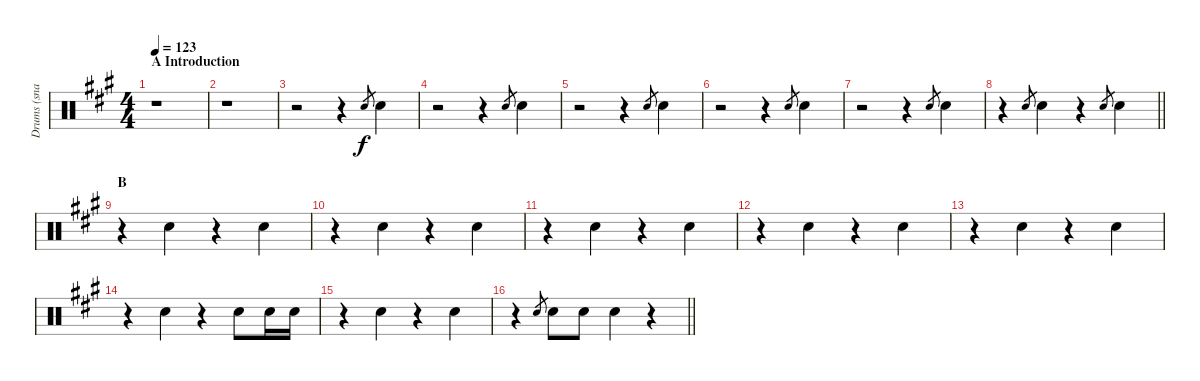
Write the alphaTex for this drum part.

\track ("Drums (snare)" "Drums (sna") {instrument percussion}
\staff {score}
\articulation defaults
\ts (4 4)
\section ("" "A Introduction")
\tempo 123
\clef neutral
\ks a
r.1{dy f} |
r.1 |
r.2 r.4 "Snare (hit) 2".8{gr} "Snare (hit) 2".4 |
r.2 r.4 "Snare (hit) 2".8{gr} "Snare (hit) 2".4 |
r.2 r.4 "Snare (hit) 2".8{gr} "Snare (hit) 2".4 |
r.2 r.4 "Snare (hit) 2".8{gr} "Snare (hit) 2".4 |
r.2 r.4 "Snare (hit) 2".8{gr} "Snare (hit) 2".4 |
\barLineRight lightlight
r.4 "Snare (hit) 2".8{gr} "Snare (hit) 2".4 r.4 "Snare (hit) 2".8{gr} "Snare (hit) 2".4 |
\section ("" "B")
r.4 "Snare (hit) 2".4 r.4 "Snare (hit) 2".4 |
r.4 "Snare (hit) 2".4 r.4 "Snare (hit) 2".4 |
r.4 "Snare (hit) 2".4 r.4 "Snare (hit) 2".4 |
r.4 "Snare (hit) 2".4 r.4 "Snare (hit) 2".4 |
r.4 "Snare (hit) 2".4 r.4 "Snare (hit) 2".4 |
r.4 "Snare (hit) 2".4 r.4 "Snare (hit) 2".8 "Snare (hit) 2".16 "Snare (hit) 2".16 |
r.4 "Snare (hit) 2".4 r.4 "Snare (hit) 2".4 |
\barLineRight lightlight
r.4 "Snare (hit) 2".8{gr} "Snare (hit) 2".8 "Snare (hit) 2".8 "Snare (hit) 2".4 r.4
